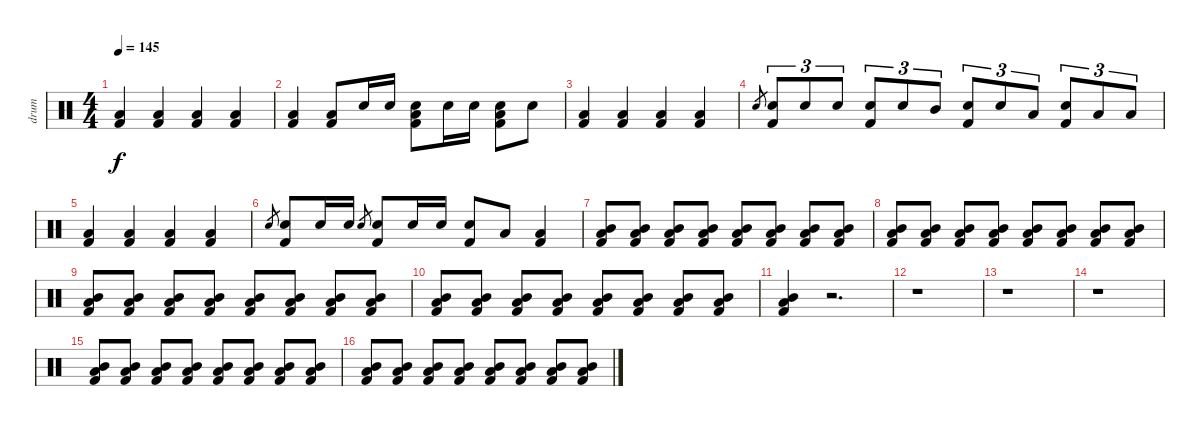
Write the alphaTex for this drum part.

\track ("drum" "drum") {instrument percussion}
\staff {score}
\articulation defaults
\ts (4 4)
\tempo 145
\clef neutral
\ks c
("Low Floor Tom (hit)" "Kick (hit) 2").4{dy f} ("Low Floor Tom (hit)" "Kick (hit) 2").4 ("Low Floor Tom (hit)" "Kick (hit) 2").4 ("Low Floor Tom (hit)" "Kick (hit) 2").4 |
("Low Floor Tom (hit)" "Kick (hit) 2").4 ("Low Floor Tom (hit)" "Kick (hit) 2").8 "Snare (hit) 2".16 "Snare (hit) 2".16 ("Snare (hit) 2" "Low Floor Tom (hit)" "Kick (hit) 2").8 "Snare (hit) 2".16 "Snare (hit) 2".16 ("Snare (hit) 2" "Low Floor Tom (hit)" "Kick (hit) 2").8 "Snare (hit) 2".8 |
("Low Floor Tom (hit)" "Kick (hit) 2").4 ("Low Floor Tom (hit)" "Kick (hit) 2").4 ("Low Floor Tom (hit)" "Kick (hit) 2").4 ("Low Floor Tom (hit)" "Kick (hit) 2").4 |
"Snare (hit) 2".8{gr} ("Snare (hit) 2" "Kick (hit) 2").8{tu (3 2)} "Snare (hit) 2".8{tu (3 2)} "Snare (hit) 2".8{tu (3 2)} ("Snare (hit) 2" "Kick (hit) 2").8{tu (3 2)} "Snare (hit) 2".8{tu (3 2)} "Mid Tom (hit)".8{tu (3 2)} ("Snare (hit) 2" "Kick (hit) 2").8{tu (3 2)} "Snare (hit) 2".8{tu (3 2)} "Low Tom (hit)".8{tu (3 2)} ("Snare (hit) 2" "Kick (hit) 2").8{tu (3 2)} "Low Floor Tom (hit)".8{tu (3 2)} "Low Floor Tom (hit)".8{tu (3 2)} |
("Low Floor Tom (hit)" "Kick (hit) 2").4 ("Low Floor Tom (hit)" "Kick (hit) 2").4 ("Low Floor Tom (hit)" "Kick (hit) 2").4 ("Low Floor Tom (hit)" "Kick (hit) 2").4 |
"Snare (hit) 2".8{gr} ("Snare (hit) 2" "Kick (hit) 2").8 "Snare (hit) 2".16 "Snare (hit) 2".16 "Snare (hit) 2".8{gr} ("Snare (hit) 2" "Kick (hit) 2").8 "Snare (hit) 2".16 "Snare (hit) 2".16 ("Snare (hit) 2" "Kick (hit) 2").8 "Low Tom (hit)".8 ("Low Tom (hit)" "Kick (hit) 2").4 |
("Mid Tom (hit)" "Low Floor Tom (hit)" "Kick (hit) 2").8{volume 3} ("Mid Tom (hit)" "Low Floor Tom (hit)" "Kick (hit) 2").8 ("Mid Tom (hit)" "Low Floor Tom (hit)" "Kick (hit) 2").8 ("Mid Tom (hit)" "Low Floor Tom (hit)" "Kick (hit) 2").8 ("Mid Tom (hit)" "Low Floor Tom (hit)" "Kick (hit) 2").8{volume 16} ("Mid Tom (hit)" "Low Floor Tom (hit)" "Kick (hit) 2").8 ("Mid Tom (hit)" "Low Floor Tom (hit)" "Kick (hit) 2").8 ("Mid Tom (hit)" "Low Floor Tom (hit)" "Kick (hit) 2").8 |
("Mid Tom (hit)" "Low Floor Tom (hit)" "Kick (hit) 2").8 ("Mid Tom (hit)" "Low Floor Tom (hit)" "Kick (hit) 2").8 ("Mid Tom (hit)" "Low Floor Tom (hit)" "Kick (hit) 2").8 ("Mid Tom (hit)" "Low Floor Tom (hit)" "Kick (hit) 2").8 ("Mid Tom (hit)" "Low Floor Tom (hit)" "Kick (hit) 2").8 ("Mid Tom (hit)" "Low Floor Tom (hit)" "Kick (hit) 2").8 ("Mid Tom (hit)" "Low Floor Tom (hit)" "Kick (hit) 2").8 ("Mid Tom (hit)" "Low Floor Tom (hit)" "Kick (hit) 2").8 |
("Mid Tom (hit)" "Low Floor Tom (hit)" "Kick (hit) 2").8 ("Mid Tom (hit)" "Low Floor Tom (hit)" "Kick (hit) 2").8 ("Mid Tom (hit)" "Low Floor Tom (hit)" "Kick (hit) 2").8 ("Mid Tom (hit)" "Low Floor Tom (hit)" "Kick (hit) 2").8 ("Mid Tom (hit)" "Low Floor Tom (hit)" "Kick (hit) 2").8 ("Mid Tom (hit)" "Low Floor Tom (hit)" "Kick (hit) 2").8 ("Mid Tom (hit)" "Low Floor Tom (hit)" "Kick (hit) 2").8 ("Mid Tom (hit)" "Low Floor Tom (hit)" "Kick (hit) 2").8 |
("Mid Tom (hit)" "Low Floor Tom (hit)" "Kick (hit) 2").8 ("Mid Tom (hit)" "Low Floor Tom (hit)" "Kick (hit) 2").8 ("Mid Tom (hit)" "Low Floor Tom (hit)" "Kick (hit) 2").8 ("Mid Tom (hit)" "Low Floor Tom (hit)" "Kick (hit) 2").8 ("Mid Tom (hit)" "Low Floor Tom (hit)" "Kick (hit) 2").8 ("Mid Tom (hit)" "Low Floor Tom (hit)" "Kick (hit) 2").8 ("Mid Tom (hit)" "Low Floor Tom (hit)" "Kick (hit) 2").8 ("Mid Tom (hit)" "Low Floor Tom (hit)" "Kick (hit) 2").8 |
("Mid Tom (hit)" "Low Floor Tom (hit)" "Kick (hit) 2").4 r.2{d} |
r.1 |
r.1 |
r.1 |
("Mid Tom (hit)" "Low Floor Tom (hit)" "Kick (hit) 2").8{volume 3} ("Mid Tom (hit)" "Low Floor Tom (hit)" "Kick (hit) 2").8 ("Mid Tom (hit)" "Low Floor Tom (hit)" "Kick (hit) 2").8 ("Mid Tom (hit)" "Low Floor Tom (hit)" "Kick (hit) 2").8 ("Mid Tom (hit)" "Low Floor Tom (hit)" "Kick (hit) 2").8{volume 16} ("Mid Tom (hit)" "Low Floor Tom (hit)" "Kick (hit) 2").8 ("Mid Tom (hit)" "Low Floor Tom (hit)" "Kick (hit) 2").8 ("Mid Tom (hit)" "Low Floor Tom (hit)" "Kick (hit) 2").8 |
("Mid Tom (hit)" "Low Floor Tom (hit)" "Kick (hit) 2").8 ("Mid Tom (hit)" "Low Floor Tom (hit)" "Kick (hit) 2").8 ("Mid Tom (hit)" "Low Floor Tom (hit)" "Kick (hit) 2").8 ("Mid Tom (hit)" "Low Floor Tom (hit)" "Kick (hit) 2").8 ("Mid Tom (hit)" "Low Floor Tom (hit)" "Kick (hit) 2").8 ("Mid Tom (hit)" "Low Floor Tom (hit)" "Kick (hit) 2").8 ("Mid Tom (hit)" "Low Floor Tom (hit)" "Kick (hit) 2").8 ("Mid Tom (hit)" "Low Floor Tom (hit)" "Kick (hit) 2").8
